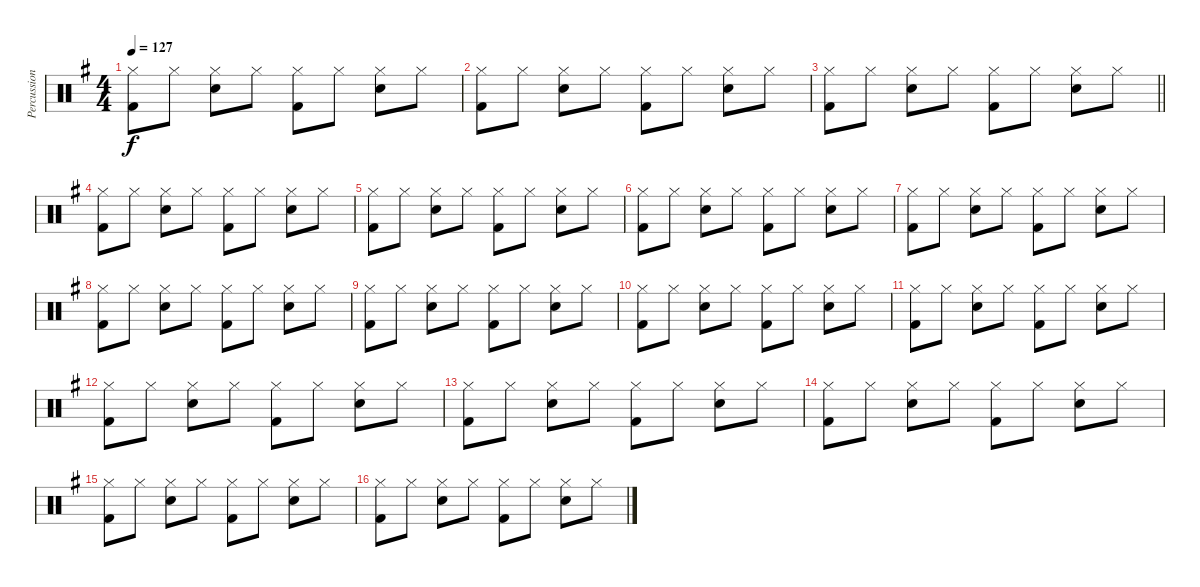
\track ("Percussion" "Percussion") {instrument percussion}
\staff {score}
\articulation defaults
\ts (4 4)
\tempo 127
\clef neutral
\ks g
("Hi-Hat (closed)" "Kick (hit) 2").8{dy f} "Hi-Hat (closed)".8 ("Hi-Hat (closed)" "Snare (hit) 2").8 "Hi-Hat (closed)".8 ("Hi-Hat (closed)" "Kick (hit) 2").8 "Hi-Hat (closed)".8 ("Hi-Hat (closed)" "Snare (hit) 2").8 "Hi-Hat (closed)".8 |
("Hi-Hat (closed)" "Kick (hit) 2").8 "Hi-Hat (closed)".8 ("Hi-Hat (closed)" "Snare (hit) 2").8 "Hi-Hat (closed)".8 ("Hi-Hat (closed)" "Kick (hit) 2").8 "Hi-Hat (closed)".8 ("Hi-Hat (closed)" "Snare (hit) 2").8 "Hi-Hat (closed)".8 |
\barLineRight lightlight
("Hi-Hat (closed)" "Kick (hit) 2").8 "Hi-Hat (closed)".8 ("Hi-Hat (closed)" "Snare (hit) 2").8 "Hi-Hat (closed)".8 ("Hi-Hat (closed)" "Kick (hit) 2").8 "Hi-Hat (closed)".8 ("Hi-Hat (closed)" "Snare (hit) 2").8 "Hi-Hat (closed)".8 |
("Hi-Hat (closed)" "Kick (hit) 2").8 "Hi-Hat (closed)".8 ("Hi-Hat (closed)" "Snare (hit) 2").8 "Hi-Hat (closed)".8 ("Hi-Hat (closed)" "Kick (hit) 2").8 "Hi-Hat (closed)".8 ("Hi-Hat (closed)" "Snare (hit) 2").8 "Hi-Hat (closed)".8 |
("Hi-Hat (closed)" "Kick (hit) 2").8 "Hi-Hat (closed)".8 ("Hi-Hat (closed)" "Snare (hit) 2").8 "Hi-Hat (closed)".8 ("Hi-Hat (closed)" "Kick (hit) 2").8 "Hi-Hat (closed)".8 ("Hi-Hat (closed)" "Snare (hit) 2").8 "Hi-Hat (closed)".8 |
("Hi-Hat (closed)" "Kick (hit) 2").8 "Hi-Hat (closed)".8 ("Hi-Hat (closed)" "Snare (hit) 2").8 "Hi-Hat (closed)".8 ("Hi-Hat (closed)" "Kick (hit) 2").8 "Hi-Hat (closed)".8 ("Hi-Hat (closed)" "Snare (hit) 2").8 "Hi-Hat (closed)".8 |
("Hi-Hat (closed)" "Kick (hit) 2").8 "Hi-Hat (closed)".8 ("Hi-Hat (closed)" "Snare (hit) 2").8 "Hi-Hat (closed)".8 ("Hi-Hat (closed)" "Kick (hit) 2").8 "Hi-Hat (closed)".8 ("Hi-Hat (closed)" "Snare (hit) 2").8 "Hi-Hat (closed)".8 |
("Hi-Hat (closed)" "Kick (hit) 2").8 "Hi-Hat (closed)".8 ("Hi-Hat (closed)" "Snare (hit) 2").8 "Hi-Hat (closed)".8 ("Hi-Hat (closed)" "Kick (hit) 2").8 "Hi-Hat (closed)".8 ("Hi-Hat (closed)" "Snare (hit) 2").8 "Hi-Hat (closed)".8 |
("Hi-Hat (closed)" "Kick (hit) 2").8 "Hi-Hat (closed)".8 ("Hi-Hat (closed)" "Snare (hit) 2").8 "Hi-Hat (closed)".8 ("Hi-Hat (closed)" "Kick (hit) 2").8 "Hi-Hat (closed)".8 ("Hi-Hat (closed)" "Snare (hit) 2").8 "Hi-Hat (closed)".8 |
("Hi-Hat (closed)" "Kick (hit) 2").8 "Hi-Hat (closed)".8 ("Hi-Hat (closed)" "Snare (hit) 2").8 "Hi-Hat (closed)".8 ("Hi-Hat (closed)" "Kick (hit) 2").8 "Hi-Hat (closed)".8 ("Hi-Hat (closed)" "Snare (hit) 2").8 "Hi-Hat (closed)".8 |
("Hi-Hat (closed)" "Kick (hit) 2").8 "Hi-Hat (closed)".8 ("Hi-Hat (closed)" "Snare (hit) 2").8 "Hi-Hat (closed)".8 ("Hi-Hat (closed)" "Kick (hit) 2").8 "Hi-Hat (closed)".8 ("Hi-Hat (closed)" "Snare (hit) 2").8 "Hi-Hat (closed)".8 |
("Hi-Hat (closed)" "Kick (hit) 2").8 "Hi-Hat (closed)".8 ("Hi-Hat (closed)" "Snare (hit) 2").8 "Hi-Hat (closed)".8 ("Hi-Hat (closed)" "Kick (hit) 2").8 "Hi-Hat (closed)".8 ("Hi-Hat (closed)" "Snare (hit) 2").8 "Hi-Hat (closed)".8 |
("Hi-Hat (closed)" "Kick (hit) 2").8 "Hi-Hat (closed)".8 ("Hi-Hat (closed)" "Snare (hit) 2").8 "Hi-Hat (closed)".8 ("Hi-Hat (closed)" "Kick (hit) 2").8 "Hi-Hat (closed)".8 ("Hi-Hat (closed)" "Snare (hit) 2").8 "Hi-Hat (closed)".8 |
("Hi-Hat (closed)" "Kick (hit) 2").8 "Hi-Hat (closed)".8 ("Hi-Hat (closed)" "Snare (hit) 2").8 "Hi-Hat (closed)".8 ("Hi-Hat (closed)" "Kick (hit) 2").8 "Hi-Hat (closed)".8 ("Hi-Hat (closed)" "Snare (hit) 2").8 "Hi-Hat (closed)".8 |
("Hi-Hat (closed)" "Kick (hit) 2").8 "Hi-Hat (closed)".8 ("Hi-Hat (closed)" "Snare (hit) 2").8 "Hi-Hat (closed)".8 ("Hi-Hat (closed)" "Kick (hit) 2").8 "Hi-Hat (closed)".8 ("Hi-Hat (closed)" "Snare (hit) 2").8 "Hi-Hat (closed)".8 |
("Hi-Hat (closed)" "Kick (hit) 2").8 "Hi-Hat (closed)".8 ("Hi-Hat (closed)" "Snare (hit) 2").8 "Hi-Hat (closed)".8 ("Hi-Hat (closed)" "Kick (hit) 2").8 "Hi-Hat (closed)".8 ("Hi-Hat (closed)" "Snare (hit) 2").8 "Hi-Hat (closed)".8
